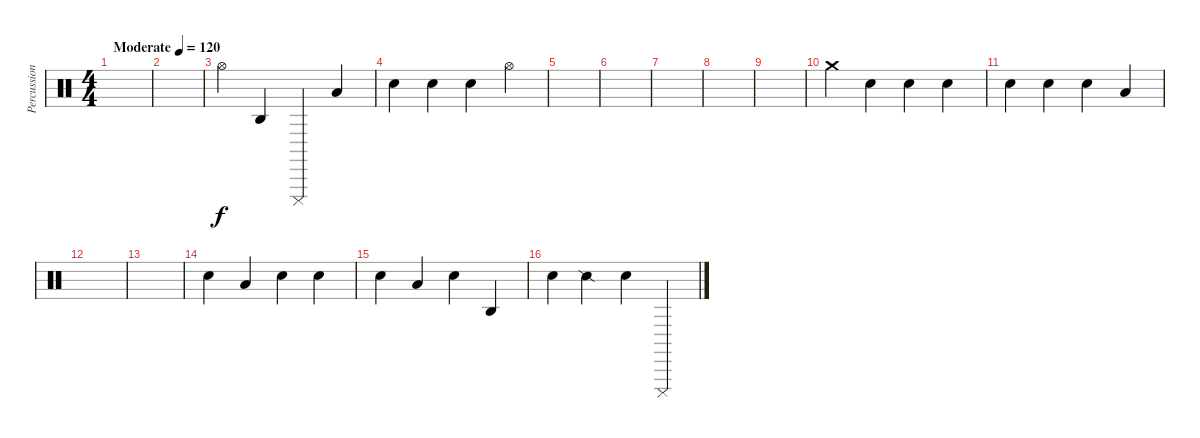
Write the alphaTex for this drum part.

\track ("Percussion" "Percussion") {instrument percussion}
\staff {score}
\articulation defaults
\ts (4 4)
\tempo (120 "Moderate")
\clef neutral
\ks c
|
|
"Hi-Hat (open)".4 "Agogo high (hit)".4 "Cuica (mute)".4 "Low Tom (hit)".4 |
"Metronome (bell)".4 "Snare (hit)".4 "Snare (hit)".4 "Hi-Hat (open)".4 |
|
|
|
|
|
"Crash medium (hit)".4 "Snare (hit)".4 "Snare (hit)".4 "Snare (hit)".4 |
"Snare (hit)".4 "Snare (hit)".4 "Snare (hit)".4 "Low Tom (hit)".4 |
|
|
"Snare (hit)".4 "Low Tom (hit)".4 "Snare (hit)".4 "Snare (hit)".4 |
"Snare (hit)".4 "Low Tom (hit)".4 "Snare (hit)".4 "Agogo high (hit)".4 |
"Metronome (bell)".4 "Snare (side stick) 2".4 "Snare (hit)".4 "Cuica (mute)".4
